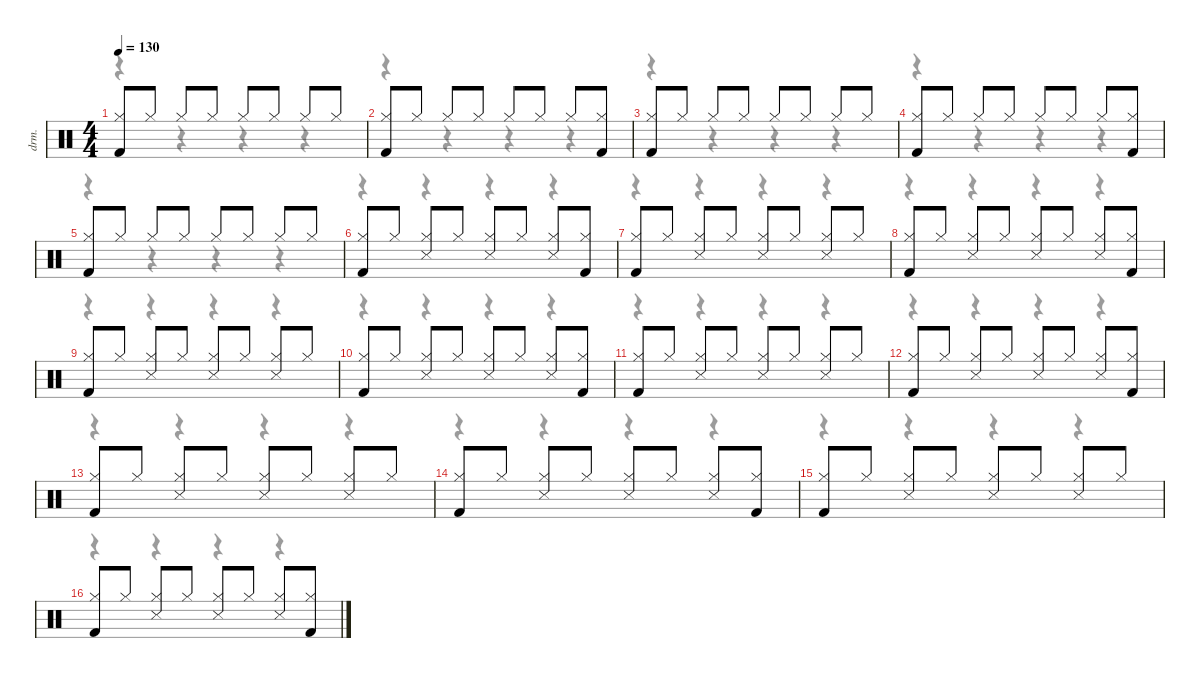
\defaultSystemsLayout 4
\hideDynamics
\bracketExtendMode nobrackets
\track ("Drums" "drm.") {instrument percussion}
\staff {score}
\articulation defaults
\voice
\ts (4 4)
\tempo 130
\clef neutral
\ks c
("Kick (hit) 2" "Hi-Hat (closed)").8{dy fff beam Up} "Hi-Hat (closed)".8{beam Up} "Hi-Hat (closed)".8{beam Up} "Hi-Hat (closed)".8{beam Up} "Hi-Hat (closed)".8{beam Up} "Hi-Hat (closed)".8{beam Up} "Hi-Hat (closed)".8{beam Up} "Hi-Hat (closed)".8{beam Up} |
("Kick (hit) 2" "Hi-Hat (closed)").8{beam Up} "Hi-Hat (closed)".8{beam Up} "Hi-Hat (closed)".8{beam Up} "Hi-Hat (closed)".8{beam Up} "Hi-Hat (closed)".8{beam Up} "Hi-Hat (closed)".8{beam Up} "Hi-Hat (closed)".8{beam Up} ("Kick (hit) 2" "Hi-Hat (closed)").8{beam Up} |
("Kick (hit) 2" "Hi-Hat (closed)").8{beam Up} "Hi-Hat (closed)".8{beam Up} "Hi-Hat (closed)".8{beam Up} "Hi-Hat (closed)".8{beam Up} "Hi-Hat (closed)".8{beam Up} "Hi-Hat (closed)".8{beam Up} "Hi-Hat (closed)".8{beam Up} "Hi-Hat (closed)".8{beam Up} |
("Kick (hit) 2" "Hi-Hat (closed)").8{beam Up} "Hi-Hat (closed)".8{beam Up} "Hi-Hat (closed)".8{beam Up} "Hi-Hat (closed)".8{beam Up} "Hi-Hat (closed)".8{beam Up} "Hi-Hat (closed)".8{beam Up} "Hi-Hat (closed)".8{beam Up} ("Kick (hit) 2" "Hi-Hat (closed)").8{beam Up} |
("Kick (hit) 2" "Hi-Hat (closed)").8{beam Up} "Hi-Hat (closed)".8{beam Up} "Hi-Hat (closed)".8{beam Up} "Hi-Hat (closed)".8{beam Up} "Hi-Hat (closed)".8{beam Up} "Hi-Hat (closed)".8{beam Up} "Hi-Hat (closed)".8{beam Up} "Hi-Hat (closed)".8{beam Up} |
("Kick (hit) 2" "Hi-Hat (closed)").8{beam Up} "Hi-Hat (closed)".8{beam Up} ("Snare (side stick) 3" "Hi-Hat (closed)").8{beam Up} "Hi-Hat (closed)".8{beam Up} ("Snare (side stick) 3" "Hi-Hat (closed)").8{beam Up} "Hi-Hat (closed)".8{beam Up} ("Snare (side stick) 3" "Hi-Hat (closed)").8{beam Up} ("Kick (hit) 2" "Hi-Hat (closed)").8{beam Up} |
("Kick (hit) 2" "Hi-Hat (closed)").8{beam Up} "Hi-Hat (closed)".8{beam Up} ("Snare (side stick) 3" "Hi-Hat (closed)").8{beam Up} "Hi-Hat (closed)".8{beam Up} ("Snare (side stick) 3" "Hi-Hat (closed)").8{beam Up} "Hi-Hat (closed)".8{beam Up} ("Snare (side stick) 3" "Hi-Hat (closed)").8{beam Up} "Hi-Hat (closed)".8{beam Up} |
("Kick (hit) 2" "Hi-Hat (closed)").8{beam Up} "Hi-Hat (closed)".8{dy mf beam Up} ("Snare (side stick) 3" "Hi-Hat (closed)").8{dy fff beam Up} "Hi-Hat (closed)".8{beam Up} ("Snare (side stick) 3" "Hi-Hat (closed)").8{beam Up} "Hi-Hat (closed)".8{beam Up} ("Snare (side stick) 3" "Hi-Hat (closed)").8{beam Up} ("Kick (hit) 2" "Hi-Hat (closed)").8{beam Up} |
("Kick (hit) 2" "Hi-Hat (closed)").8{beam Up} "Hi-Hat (closed)".8{beam Up} ("Snare (side stick) 3" "Hi-Hat (closed)").8{beam Up} "Hi-Hat (closed)".8{beam Up} ("Snare (side stick) 3" "Hi-Hat (closed)").8{beam Up} "Hi-Hat (closed)".8{beam Up} ("Snare (side stick) 3" "Hi-Hat (closed)").8{beam Up} "Hi-Hat (closed)".8{beam Up} |
("Kick (hit) 2" "Hi-Hat (closed)").8{beam Up} "Hi-Hat (closed)".8{beam Up} ("Snare (side stick) 3" "Hi-Hat (closed)").8{beam Up} "Hi-Hat (closed)".8{beam Up} ("Snare (side stick) 3" "Hi-Hat (closed)").8{beam Up} "Hi-Hat (closed)".8{beam Up} ("Snare (side stick) 3" "Hi-Hat (closed)").8{beam Up} ("Kick (hit) 2" "Hi-Hat (closed)").8{beam Up} |
("Kick (hit) 2" "Hi-Hat (closed)").8{beam Up} "Hi-Hat (closed)".8{beam Up} ("Snare (side stick) 3" "Hi-Hat (closed)").8{beam Up} "Hi-Hat (closed)".8{beam Up} ("Snare (side stick) 3" "Hi-Hat (closed)").8{beam Up} "Hi-Hat (closed)".8{beam Up} ("Snare (side stick) 3" "Hi-Hat (closed)").8{beam Up} "Hi-Hat (closed)".8{beam Up} |
("Kick (hit) 2" "Hi-Hat (closed)").8{beam Up} "Hi-Hat (closed)".8{beam Up} ("Snare (side stick) 3" "Hi-Hat (closed)").8{beam Up} "Hi-Hat (closed)".8{beam Up} ("Snare (side stick) 3" "Hi-Hat (closed)").8{beam Up} "Hi-Hat (closed)".8{beam Up} ("Snare (side stick) 3" "Hi-Hat (closed)").8{beam Up} ("Kick (hit) 2" "Hi-Hat (closed)").8{beam Up} |
("Kick (hit) 2" "Hi-Hat (closed)").8{beam Up} "Hi-Hat (closed)".8{beam Up} ("Snare (side stick) 3" "Hi-Hat (closed)").8{beam Up} "Hi-Hat (closed)".8{beam Up} ("Snare (side stick) 3" "Hi-Hat (closed)").8{beam Up} "Hi-Hat (closed)".8{beam Up} ("Snare (side stick) 3" "Hi-Hat (closed)").8{beam Up} "Hi-Hat (closed)".8{beam Up} |
("Kick (hit) 2" "Hi-Hat (closed)").8{beam Up} "Hi-Hat (closed)".8{beam Up} ("Snare (side stick) 3" "Hi-Hat (closed)").8{beam Up} "Hi-Hat (closed)".8{beam Up} ("Snare (side stick) 3" "Hi-Hat (closed)").8{beam Up} "Hi-Hat (closed)".8{beam Up} ("Snare (side stick) 3" "Hi-Hat (closed)").8{beam Up} ("Kick (hit) 2" "Hi-Hat (closed)").8{beam Up} |
("Kick (hit) 2" "Hi-Hat (closed)").8{beam Up} "Hi-Hat (closed)".8{beam Up} ("Snare (side stick) 3" "Hi-Hat (closed)").8{beam Up} "Hi-Hat (closed)".8{beam Up} ("Snare (side stick) 3" "Hi-Hat (closed)").8{beam Up} "Hi-Hat (closed)".8{beam Up} ("Snare (side stick) 3" "Hi-Hat (closed)").8{beam Up} "Hi-Hat (closed)".8{beam Up} |
("Kick (hit) 2" "Hi-Hat (closed)").8{beam Up} "Hi-Hat (closed)".8{beam Up} ("Snare (side stick) 3" "Hi-Hat (closed)").8{beam Up} "Hi-Hat (closed)".8{beam Up} ("Snare (side stick) 3" "Hi-Hat (closed)").8{beam Up} "Hi-Hat (closed)".8{beam Up} ("Snare (side stick) 3" "Hi-Hat (closed)").8{beam Up} ("Kick (hit) 2" "Hi-Hat (closed)").8{beam Up}
\voice
\clef neutral
\ottava regular
\simile none
\ks c
r.4{dy mf beam Down} r.4{beam Down} r.4{beam Down} r.4{beam Down} |
r.4{beam Down} r.4{beam Down} r.4{beam Down} r.4{beam Down} |
r.4{beam Down} r.4{beam Down} r.4{beam Down} r.4{beam Down} |
r.4{beam Down} r.4{beam Down} r.4{beam Down} r.4{beam Down} |
r.4{beam Down} r.4{beam Down} r.4{beam Down} r.4{beam Down} |
r.4{beam Down} r.4{beam Down} r.4{beam Down} r.4{beam Down} |
r.4{beam Down} r.4{beam Down} r.4{beam Down} r.4{beam Down} |
r.4{beam Down} r.4{beam Down} r.4{beam Down} r.4{beam Down} |
r.4{beam Down} r.4{beam Down} r.4{beam Down} r.4{beam Down} |
r.4{beam Down} r.4{beam Down} r.4{beam Down} r.4{beam Down} |
r.4{beam Down} r.4{beam Down} r.4{beam Down} r.4{beam Down} |
r.4{beam Down} r.4{beam Down} r.4{beam Down} r.4{beam Down} |
r.4{beam Down} r.4{beam Down} r.4{beam Down} r.4{beam Down} |
r.4{beam Down} r.4{beam Down} r.4{beam Down} r.4{beam Down} |
r.4{beam Down} r.4{beam Down} r.4{beam Down} r.4{beam Down} |
r.4{beam Down} r.4{beam Down} r.4{beam Down} r.4{beam Down}
